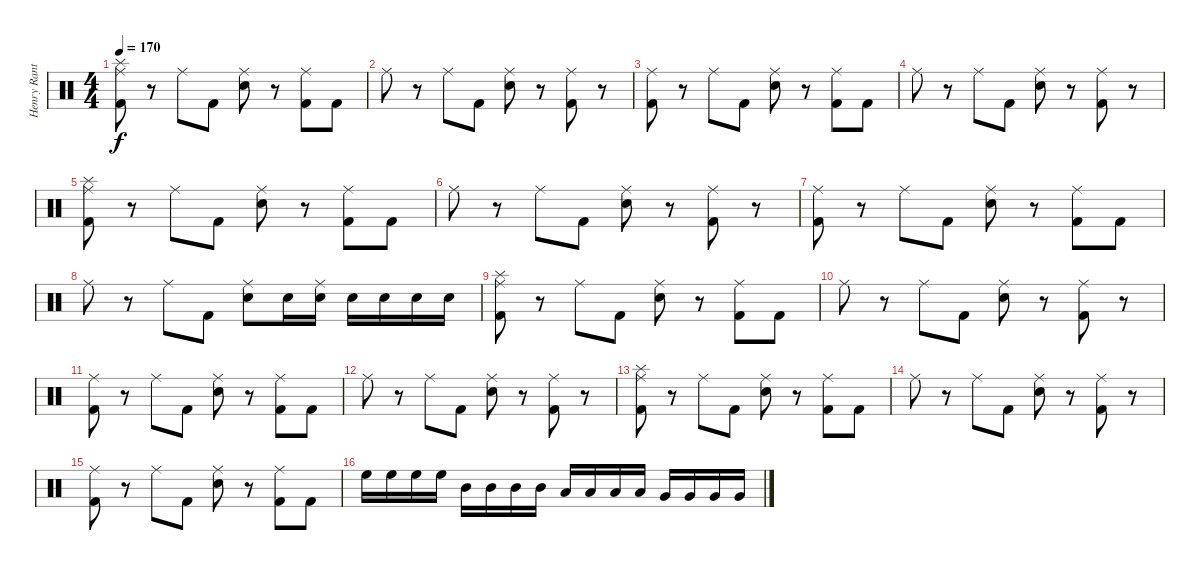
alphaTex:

\track ("Henry Ranta -Drums-" "Henry Rant") {instrument percussion}
\staff {score}
\articulation defaults
\ts (4 4)
\tempo 170
\clef neutral
\ks c
("Ride (middle)" "Splash (hit)" "Kick (hit) 2").8{dy f} r.8 "Ride (middle)".8 "Kick (hit) 2".8 ("Ride (middle)" "Snare (hit) 2").8 r.8 ("Ride (middle)" "Kick (hit) 2").8 "Kick (hit) 2".8 |
"Ride (middle)".8 r.8 "Ride (middle)".8 "Kick (hit) 2".8 ("Ride (middle)" "Snare (hit) 2").8 r.8 ("Ride (middle)" "Kick (hit) 2").8 r.8 |
("Ride (middle)" "Kick (hit) 2").8 r.8 "Ride (middle)".8 "Kick (hit) 2".8 ("Ride (middle)" "Snare (hit) 2").8 r.8 ("Ride (middle)" "Kick (hit) 2").8 "Kick (hit) 2".8 |
"Ride (middle)".8 r.8 "Ride (middle)".8 "Kick (hit) 2".8 ("Ride (middle)" "Snare (hit) 2").8 r.8 ("Ride (middle)" "Kick (hit) 2").8 r.8 |
("Ride (middle)" "Splash (hit)" "Kick (hit) 2").8 r.8 "Ride (middle)".8 "Kick (hit) 2".8 ("Ride (middle)" "Snare (hit) 2").8 r.8 ("Ride (middle)" "Kick (hit) 2").8 "Kick (hit) 2".8 |
"Ride (middle)".8 r.8 "Ride (middle)".8 "Kick (hit) 2".8 ("Ride (middle)" "Snare (hit) 2").8 r.8 ("Ride (middle)" "Kick (hit) 2").8 r.8 |
("Ride (middle)" "Kick (hit) 2").8 r.8 "Ride (middle)".8 "Kick (hit) 2".8 ("Ride (middle)" "Snare (hit) 2").8 r.8 ("Ride (middle)" "Kick (hit) 2").8 "Kick (hit) 2".8 |
"Ride (middle)".8 r.8 "Ride (middle)".8 "Kick (hit) 2".8 ("Ride (middle)" "Snare (hit) 2").8 "Snare (hit) 2".16 ("Ride (middle)" "Snare (hit) 2").16 "Snare (hit) 2".16 "Snare (hit) 2".16 "Snare (hit) 2".16 "Snare (hit) 2".16 |
("Ride (middle)" "Splash (hit)" "Kick (hit) 2").8 r.8 "Ride (middle)".8 "Kick (hit) 2".8 ("Ride (middle)" "Snare (hit) 2").8 r.8 ("Ride (middle)" "Kick (hit) 2").8 "Kick (hit) 2".8 |
"Ride (middle)".8 r.8 "Ride (middle)".8 "Kick (hit) 2".8 ("Ride (middle)" "Snare (hit) 2").8 r.8 ("Ride (middle)" "Kick (hit) 2").8 r.8 |
("Ride (middle)" "Kick (hit) 2").8 r.8 "Ride (middle)".8 "Kick (hit) 2".8 ("Ride (middle)" "Snare (hit) 2").8 r.8 ("Ride (middle)" "Kick (hit) 2").8 "Kick (hit) 2".8 |
"Ride (middle)".8 r.8 "Ride (middle)".8 "Kick (hit) 2".8 ("Ride (middle)" "Snare (hit) 2").8 r.8 ("Ride (middle)" "Kick (hit) 2").8 r.8 |
("Ride (middle)" "Splash (hit)" "Kick (hit) 2").8 r.8 "Ride (middle)".8 "Kick (hit) 2".8 ("Ride (middle)" "Snare (hit) 2").8 r.8 ("Ride (middle)" "Kick (hit) 2").8 "Kick (hit) 2".8 |
"Ride (middle)".8 r.8 "Ride (middle)".8 "Kick (hit) 2".8 ("Ride (middle)" "Snare (hit) 2").8 r.8 ("Ride (middle)" "Kick (hit) 2").8 r.8 |
("Ride (middle)" "Kick (hit) 2").8 r.8 "Ride (middle)".8 "Kick (hit) 2".8 ("Ride (middle)" "Snare (hit) 2").8 r.8 ("Ride (middle)" "Kick (hit) 2").8 "Kick (hit) 2".8 |
"High Floor Tom (hit)".16 "High Floor Tom (hit)".16 "High Floor Tom (hit)".16 "High Floor Tom (hit)".16 "Mid Tom (hit)".16 "Mid Tom (hit)".16 "Mid Tom (hit)".16 "Mid Tom (hit)".16 "Low Tom (hit)".16 "Low Tom (hit)".16 "Low Tom (hit)".16 "Low Tom (hit)".16 "Very Low Tom (hit)".16 "Very Low Tom (hit)".16 "Very Low Tom (hit)".16 "Very Low Tom (hit)".16
